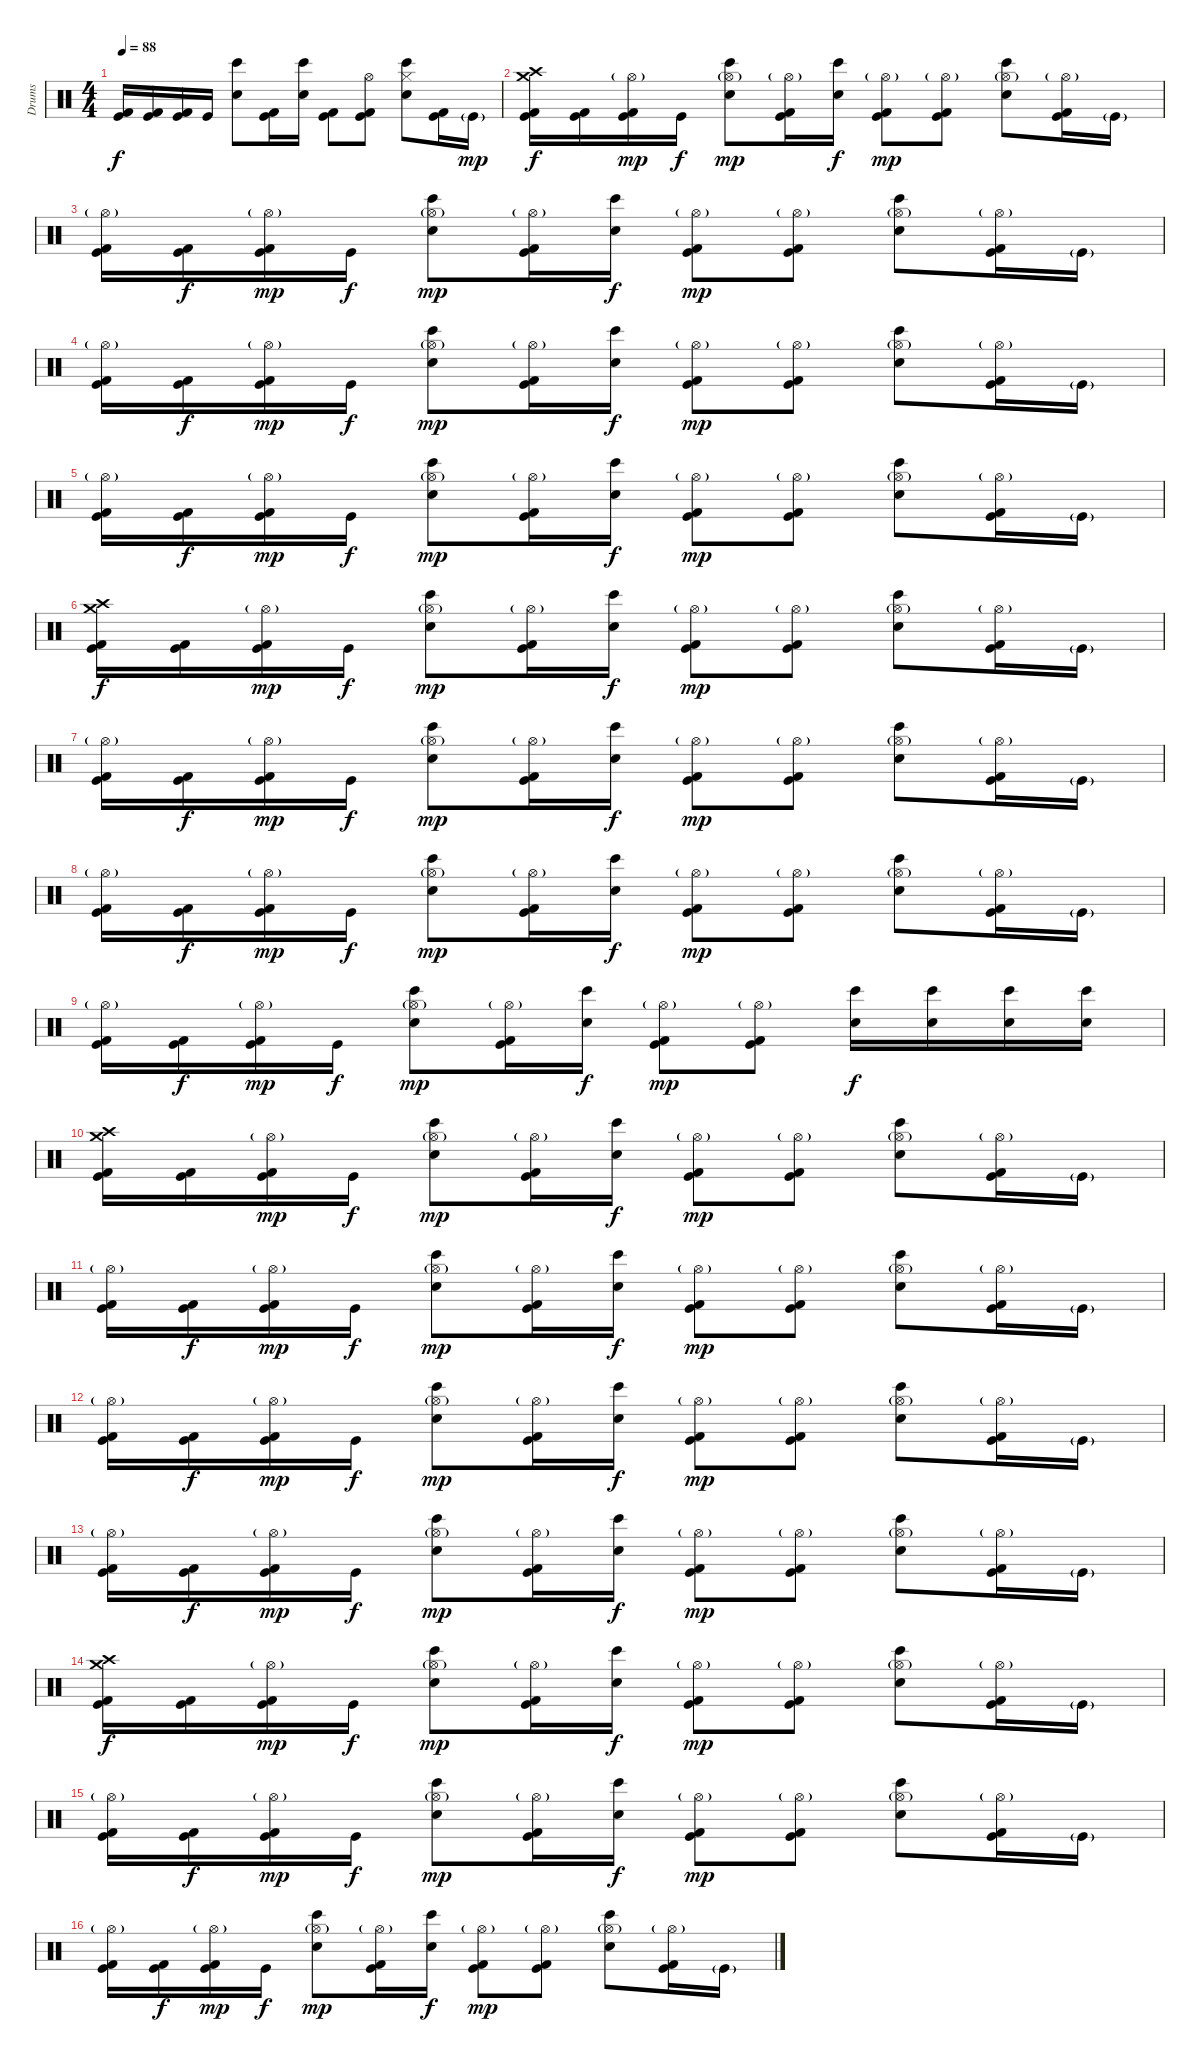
\track ("Drums" "Drums") {instrument percussion}
\staff {score}
\articulation defaults
\ts (4 4)
\tempo 88
\clef neutral
\ks c
("Kick (hit) 2" "Kick (hit)").16{dy f} ("Kick (hit) 2" "Kick (hit)").16 ("Kick (hit) 2" "Kick (hit)").16 "Kick (hit)".16 ("Bongo High (hit)" "Snare (hit) 2").8 ("Kick (hit) 2" "Kick (hit)").16 ("Bongo High (hit)" "Snare (hit) 2").16 ("Kick (hit) 2" "Kick (hit)").8 ("Hi-Hat (open)" "Kick (hit) 2" "Kick (hit)").8 ("Bongo High (hit)" "Snare (hit) 2" "Hi-Hat (closed)").8 ("Kick (hit) 2" "Kick (hit)").16 "Kick (hit)"{g}.16{dy mp} |
("Crash medium (hit)" "Crash high (hit)" "Kick (hit) 2" "Kick (hit)").16{dy f} ("Kick (hit) 2" "Kick (hit)").16 ("Hi-Hat (open)"{g} "Kick (hit) 2" "Kick (hit)").16{dy mp} "Kick (hit)".16{dy f} ("Hi-Hat (open)"{g} "Bongo High (hit)" "Snare (hit) 2").8{dy mp} ("Hi-Hat (open)"{g} "Kick (hit) 2" "Kick (hit)").16 ("Bongo High (hit)" "Snare (hit) 2").16{dy f} ("Hi-Hat (open)"{g} "Kick (hit) 2" "Kick (hit)").8{dy mp} ("Hi-Hat (open)"{g} "Kick (hit) 2" "Kick (hit)").8 ("Hi-Hat (open)"{g} "Bongo High (hit)" "Snare (hit) 2").8 ("Hi-Hat (open)"{g} "Kick (hit) 2" "Kick (hit)").16 "Kick (hit)"{g}.16 |
("Hi-Hat (open)"{g} "Kick (hit) 2" "Kick (hit)").16 ("Kick (hit) 2" "Kick (hit)").16{dy f} ("Hi-Hat (open)"{g} "Kick (hit) 2" "Kick (hit)").16{dy mp} "Kick (hit)".16{dy f} ("Hi-Hat (open)"{g} "Bongo High (hit)" "Snare (hit) 2").8{dy mp} ("Hi-Hat (open)"{g} "Kick (hit) 2" "Kick (hit)").16 ("Bongo High (hit)" "Snare (hit) 2").16{dy f} ("Hi-Hat (open)"{g} "Kick (hit) 2" "Kick (hit)").8{dy mp} ("Hi-Hat (open)"{g} "Kick (hit) 2" "Kick (hit)").8 ("Hi-Hat (open)"{g} "Bongo High (hit)" "Snare (hit) 2").8 ("Hi-Hat (open)"{g} "Kick (hit) 2" "Kick (hit)").16 "Kick (hit)"{g}.16 |
("Hi-Hat (open)"{g} "Kick (hit) 2" "Kick (hit)").16 ("Kick (hit) 2" "Kick (hit)").16{dy f} ("Hi-Hat (open)"{g} "Kick (hit) 2" "Kick (hit)").16{dy mp} "Kick (hit)".16{dy f} ("Hi-Hat (open)"{g} "Bongo High (hit)" "Snare (hit) 2").8{dy mp} ("Hi-Hat (open)"{g} "Kick (hit) 2" "Kick (hit)").16 ("Bongo High (hit)" "Snare (hit) 2").16{dy f} ("Hi-Hat (open)"{g} "Kick (hit) 2" "Kick (hit)").8{dy mp} ("Hi-Hat (open)"{g} "Kick (hit) 2" "Kick (hit)").8 ("Hi-Hat (open)"{g} "Bongo High (hit)" "Snare (hit) 2").8 ("Hi-Hat (open)"{g} "Kick (hit) 2" "Kick (hit)").16 "Kick (hit)"{g}.16 |
("Hi-Hat (open)"{g} "Kick (hit) 2" "Kick (hit)").16 ("Kick (hit) 2" "Kick (hit)").16{dy f} ("Hi-Hat (open)"{g} "Kick (hit) 2" "Kick (hit)").16{dy mp} "Kick (hit)".16{dy f} ("Hi-Hat (open)"{g} "Bongo High (hit)" "Snare (hit) 2").8{dy mp} ("Hi-Hat (open)"{g} "Kick (hit) 2" "Kick (hit)").16 ("Bongo High (hit)" "Snare (hit) 2").16{dy f} ("Hi-Hat (open)"{g} "Kick (hit) 2" "Kick (hit)").8{dy mp} ("Hi-Hat (open)"{g} "Kick (hit) 2" "Kick (hit)").8 ("Hi-Hat (open)"{g} "Bongo High (hit)" "Snare (hit) 2").8 ("Hi-Hat (open)"{g} "Kick (hit) 2" "Kick (hit)").16 "Kick (hit)"{g}.16 |
("Crash medium (hit)" "Crash high (hit)" "Kick (hit) 2" "Kick (hit)").16{dy f} ("Kick (hit) 2" "Kick (hit)").16 ("Hi-Hat (open)"{g} "Kick (hit) 2" "Kick (hit)").16{dy mp} "Kick (hit)".16{dy f} ("Hi-Hat (open)"{g} "Bongo High (hit)" "Snare (hit) 2").8{dy mp} ("Hi-Hat (open)"{g} "Kick (hit) 2" "Kick (hit)").16 ("Bongo High (hit)" "Snare (hit) 2").16{dy f} ("Hi-Hat (open)"{g} "Kick (hit) 2" "Kick (hit)").8{dy mp} ("Hi-Hat (open)"{g} "Kick (hit) 2" "Kick (hit)").8 ("Hi-Hat (open)"{g} "Bongo High (hit)" "Snare (hit) 2").8 ("Hi-Hat (open)"{g} "Kick (hit) 2" "Kick (hit)").16 "Kick (hit)"{g}.16 |
("Hi-Hat (open)"{g} "Kick (hit) 2" "Kick (hit)").16 ("Kick (hit) 2" "Kick (hit)").16{dy f} ("Hi-Hat (open)"{g} "Kick (hit) 2" "Kick (hit)").16{dy mp} "Kick (hit)".16{dy f} ("Hi-Hat (open)"{g} "Bongo High (hit)" "Snare (hit) 2").8{dy mp} ("Hi-Hat (open)"{g} "Kick (hit) 2" "Kick (hit)").16 ("Bongo High (hit)" "Snare (hit) 2").16{dy f} ("Hi-Hat (open)"{g} "Kick (hit) 2" "Kick (hit)").8{dy mp} ("Hi-Hat (open)"{g} "Kick (hit) 2" "Kick (hit)").8 ("Hi-Hat (open)"{g} "Bongo High (hit)" "Snare (hit) 2").8 ("Hi-Hat (open)"{g} "Kick (hit) 2" "Kick (hit)").16 "Kick (hit)"{g}.16 |
("Hi-Hat (open)"{g} "Kick (hit) 2" "Kick (hit)").16 ("Kick (hit) 2" "Kick (hit)").16{dy f} ("Hi-Hat (open)"{g} "Kick (hit) 2" "Kick (hit)").16{dy mp} "Kick (hit)".16{dy f} ("Hi-Hat (open)"{g} "Bongo High (hit)" "Snare (hit) 2").8{dy mp} ("Hi-Hat (open)"{g} "Kick (hit) 2" "Kick (hit)").16 ("Bongo High (hit)" "Snare (hit) 2").16{dy f} ("Hi-Hat (open)"{g} "Kick (hit) 2" "Kick (hit)").8{dy mp} ("Hi-Hat (open)"{g} "Kick (hit) 2" "Kick (hit)").8 ("Hi-Hat (open)"{g} "Bongo High (hit)" "Snare (hit) 2").8 ("Hi-Hat (open)"{g} "Kick (hit) 2" "Kick (hit)").16 "Kick (hit)"{g}.16 |
("Hi-Hat (open)"{g} "Kick (hit) 2" "Kick (hit)").16 ("Kick (hit) 2" "Kick (hit)").16{dy f} ("Hi-Hat (open)"{g} "Kick (hit) 2" "Kick (hit)").16{dy mp} "Kick (hit)".16{dy f} ("Hi-Hat (open)"{g} "Bongo High (hit)" "Snare (hit) 2").8{dy mp} ("Hi-Hat (open)"{g} "Kick (hit) 2" "Kick (hit)").16 ("Bongo High (hit)" "Snare (hit) 2").16{dy f} ("Hi-Hat (open)"{g} "Kick (hit) 2" "Kick (hit)").8{dy mp} ("Hi-Hat (open)"{g} "Kick (hit) 2" "Kick (hit)").8 ("Bongo High (hit)" "Snare (hit) 2").16{dy f} ("Bongo High (hit)" "Snare (hit) 2").16 ("Bongo High (hit)" "Snare (hit) 2").16 ("Bongo High (hit)" "Snare (hit) 2").16 |
("Crash medium (hit)" "Crash high (hit)" "Kick (hit) 2" "Kick (hit)").16 ("Kick (hit) 2" "Kick (hit)").16 ("Hi-Hat (open)"{g} "Kick (hit) 2" "Kick (hit)").16{dy mp} "Kick (hit)".16{dy f} ("Hi-Hat (open)"{g} "Bongo High (hit)" "Snare (hit) 2").8{dy mp} ("Hi-Hat (open)"{g} "Kick (hit) 2" "Kick (hit)").16 ("Bongo High (hit)" "Snare (hit) 2").16{dy f} ("Hi-Hat (open)"{g} "Kick (hit) 2" "Kick (hit)").8{dy mp} ("Hi-Hat (open)"{g} "Kick (hit) 2" "Kick (hit)").8 ("Hi-Hat (open)"{g} "Bongo High (hit)" "Snare (hit) 2").8 ("Hi-Hat (open)"{g} "Kick (hit) 2" "Kick (hit)").16 "Kick (hit)"{g}.16 |
("Hi-Hat (open)"{g} "Kick (hit) 2" "Kick (hit)").16 ("Kick (hit) 2" "Kick (hit)").16{dy f} ("Hi-Hat (open)"{g} "Kick (hit) 2" "Kick (hit)").16{dy mp} "Kick (hit)".16{dy f} ("Hi-Hat (open)"{g} "Bongo High (hit)" "Snare (hit) 2").8{dy mp} ("Hi-Hat (open)"{g} "Kick (hit) 2" "Kick (hit)").16 ("Bongo High (hit)" "Snare (hit) 2").16{dy f} ("Hi-Hat (open)"{g} "Kick (hit) 2" "Kick (hit)").8{dy mp} ("Hi-Hat (open)"{g} "Kick (hit) 2" "Kick (hit)").8 ("Hi-Hat (open)"{g} "Bongo High (hit)" "Snare (hit) 2").8 ("Hi-Hat (open)"{g} "Kick (hit) 2" "Kick (hit)").16 "Kick (hit)"{g}.16 |
("Hi-Hat (open)"{g} "Kick (hit) 2" "Kick (hit)").16 ("Kick (hit) 2" "Kick (hit)").16{dy f} ("Hi-Hat (open)"{g} "Kick (hit) 2" "Kick (hit)").16{dy mp} "Kick (hit)".16{dy f} ("Hi-Hat (open)"{g} "Bongo High (hit)" "Snare (hit) 2").8{dy mp} ("Hi-Hat (open)"{g} "Kick (hit) 2" "Kick (hit)").16 ("Bongo High (hit)" "Snare (hit) 2").16{dy f} ("Hi-Hat (open)"{g} "Kick (hit) 2" "Kick (hit)").8{dy mp} ("Hi-Hat (open)"{g} "Kick (hit) 2" "Kick (hit)").8 ("Hi-Hat (open)"{g} "Bongo High (hit)" "Snare (hit) 2").8 ("Hi-Hat (open)"{g} "Kick (hit) 2" "Kick (hit)").16 "Kick (hit)"{g}.16 |
("Hi-Hat (open)"{g} "Kick (hit) 2" "Kick (hit)").16 ("Kick (hit) 2" "Kick (hit)").16{dy f} ("Hi-Hat (open)"{g} "Kick (hit) 2" "Kick (hit)").16{dy mp} "Kick (hit)".16{dy f} ("Hi-Hat (open)"{g} "Bongo High (hit)" "Snare (hit) 2").8{dy mp} ("Hi-Hat (open)"{g} "Kick (hit) 2" "Kick (hit)").16 ("Bongo High (hit)" "Snare (hit) 2").16{dy f} ("Hi-Hat (open)"{g} "Kick (hit) 2" "Kick (hit)").8{dy mp} ("Hi-Hat (open)"{g} "Kick (hit) 2" "Kick (hit)").8 ("Hi-Hat (open)"{g} "Bongo High (hit)" "Snare (hit) 2").8 ("Hi-Hat (open)"{g} "Kick (hit) 2" "Kick (hit)").16 "Kick (hit)"{g}.16 |
("Crash medium (hit)" "Crash high (hit)" "Kick (hit) 2" "Kick (hit)").16{dy f} ("Kick (hit) 2" "Kick (hit)").16 ("Hi-Hat (open)"{g} "Kick (hit) 2" "Kick (hit)").16{dy mp} "Kick (hit)".16{dy f} ("Hi-Hat (open)"{g} "Bongo High (hit)" "Snare (hit) 2").8{dy mp} ("Hi-Hat (open)"{g} "Kick (hit) 2" "Kick (hit)").16 ("Bongo High (hit)" "Snare (hit) 2").16{dy f} ("Hi-Hat (open)"{g} "Kick (hit) 2" "Kick (hit)").8{dy mp} ("Hi-Hat (open)"{g} "Kick (hit) 2" "Kick (hit)").8 ("Hi-Hat (open)"{g} "Bongo High (hit)" "Snare (hit) 2").8 ("Hi-Hat (open)"{g} "Kick (hit) 2" "Kick (hit)").16 "Kick (hit)"{g}.16 |
("Hi-Hat (open)"{g} "Kick (hit) 2" "Kick (hit)").16 ("Kick (hit) 2" "Kick (hit)").16{dy f} ("Hi-Hat (open)"{g} "Kick (hit) 2" "Kick (hit)").16{dy mp} "Kick (hit)".16{dy f} ("Hi-Hat (open)"{g} "Bongo High (hit)" "Snare (hit) 2").8{dy mp} ("Hi-Hat (open)"{g} "Kick (hit) 2" "Kick (hit)").16 ("Bongo High (hit)" "Snare (hit) 2").16{dy f} ("Hi-Hat (open)"{g} "Kick (hit) 2" "Kick (hit)").8{dy mp} ("Hi-Hat (open)"{g} "Kick (hit) 2" "Kick (hit)").8 ("Hi-Hat (open)"{g} "Bongo High (hit)" "Snare (hit) 2").8 ("Hi-Hat (open)"{g} "Kick (hit) 2" "Kick (hit)").16 "Kick (hit)"{g}.16 |
("Hi-Hat (open)"{g} "Kick (hit) 2" "Kick (hit)").16 ("Kick (hit) 2" "Kick (hit)").16{dy f} ("Hi-Hat (open)"{g} "Kick (hit) 2" "Kick (hit)").16{dy mp} "Kick (hit)".16{dy f} ("Hi-Hat (open)"{g} "Bongo High (hit)" "Snare (hit) 2").8{dy mp} ("Hi-Hat (open)"{g} "Kick (hit) 2" "Kick (hit)").16 ("Bongo High (hit)" "Snare (hit) 2").16{dy f} ("Hi-Hat (open)"{g} "Kick (hit) 2" "Kick (hit)").8{dy mp} ("Hi-Hat (open)"{g} "Kick (hit) 2" "Kick (hit)").8 ("Hi-Hat (open)"{g} "Bongo High (hit)" "Snare (hit) 2").8 ("Hi-Hat (open)"{g} "Kick (hit) 2" "Kick (hit)").16 "Kick (hit)"{g}.16
